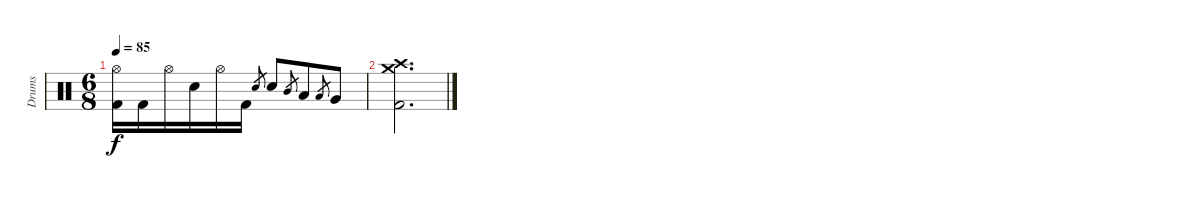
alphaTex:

\track ("Drums" "Drums") {instrument percussion}
\staff {score}
\articulation defaults
\ts (6 8)
\tempo 85
\clef neutral
\ks c
("Hi-Hat (open)" "Kick (hit) 2").16{dy f} "Kick (hit) 2".16 "Hi-Hat (open)".16 "Electric Snare (hit)".16 "Hi-Hat (open)".16 "Kick (hit) 2".16 "Electric Snare (hit)".8{gr} "Electric Snare (hit)".8 "Mid Tom (hit)".8{gr} "Low Tom (hit)".8 "Low Tom (hit)".8{gr} "Very Low Tom (hit)".8 |
("Crash medium (hit)" "Crash high (hit)" "Kick (hit) 2").2{d}
